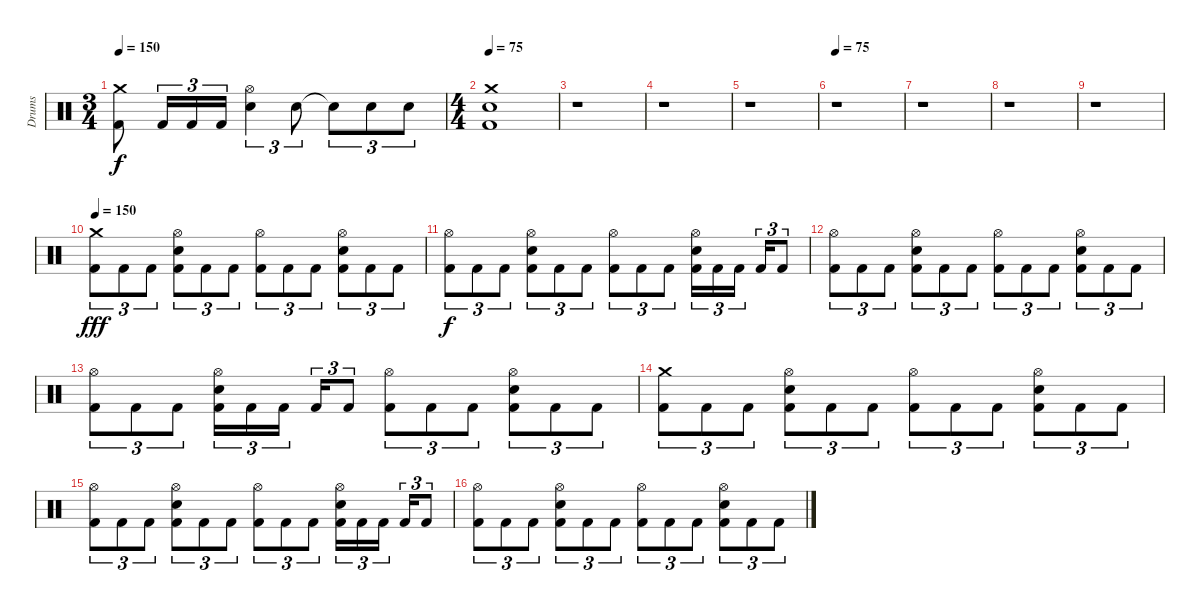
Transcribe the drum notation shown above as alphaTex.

\track ("Drums" "Drums") {instrument percussion}
\staff {score}
\articulation defaults
\ts (3 4)
\tempo 150
\clef neutral
\ks c
("Kick (hit) 2" "Crash medium (hit)").8{dy f} "Kick (hit) 2".16{tu (3 2)} "Kick (hit) 2".16{tu (3 2)} "Kick (hit) 2".16{tu (3 2)} ("Electric Snare (hit)" "Hi-Hat (open)").4{tu (3 2)} "Electric Snare (hit)".8{tu (3 2)} "Electric Snare (hit)"{t}.8{tu (3 2)} "Electric Snare (hit)".8{tu (3 2)} "Electric Snare (hit)".8{tu (3 2)} |
\ts (4 4)
\tempo 75
("Kick (hit) 2" "Electric Snare (hit)" "Crash medium (hit)").1 |
r.1 |
r.1 |
r.1 |
\tempo 75
r.1 |
r.1 |
r.1 |
r.1 |
\tempo 150
("Kick (hit) 2" "Crash medium (hit)").8{tu (3 2) dy fff} "Kick (hit) 2".8{tu (3 2)} "Kick (hit) 2".8{tu (3 2)} ("Kick (hit) 2" "Electric Snare (hit)" "Hi-Hat (open)").8{tu (3 2)} "Kick (hit) 2".8{tu (3 2)} "Kick (hit) 2".8{tu (3 2)} ("Kick (hit) 2" "Hi-Hat (open)").8{tu (3 2)} "Kick (hit) 2".8{tu (3 2)} "Kick (hit) 2".8{tu (3 2)} ("Kick (hit) 2" "Electric Snare (hit)" "Hi-Hat (open)").8{tu (3 2)} "Kick (hit) 2".8{tu (3 2)} "Kick (hit) 2".8{tu (3 2)} |
("Kick (hit) 2" "Hi-Hat (open)").8{tu (3 2) dy f} "Kick (hit) 2".8{tu (3 2)} "Kick (hit) 2".8{tu (3 2)} ("Kick (hit) 2" "Electric Snare (hit)" "Hi-Hat (open)").8{tu (3 2)} "Kick (hit) 2".8{tu (3 2)} "Kick (hit) 2".8{tu (3 2)} ("Kick (hit) 2" "Hi-Hat (open)").8{tu (3 2)} "Kick (hit) 2".8{tu (3 2)} "Kick (hit) 2".8{tu (3 2)} ("Kick (hit) 2" "Electric Snare (hit)" "Hi-Hat (open)").16{tu (3 2)} "Kick (hit) 2".16{tu (3 2)} "Kick (hit) 2".16{tu (3 2)} "Kick (hit) 2".16{tu (3 2)} "Kick (hit) 2".8{tu (3 2)} |
("Kick (hit) 2" "Hi-Hat (open)").8{tu (3 2)} "Kick (hit) 2".8{tu (3 2)} "Kick (hit) 2".8{tu (3 2)} ("Kick (hit) 2" "Electric Snare (hit)" "Hi-Hat (open)").8{tu (3 2)} "Kick (hit) 2".8{tu (3 2)} "Kick (hit) 2".8{tu (3 2)} ("Kick (hit) 2" "Hi-Hat (open)").8{tu (3 2)} "Kick (hit) 2".8{tu (3 2)} "Kick (hit) 2".8{tu (3 2)} ("Kick (hit) 2" "Electric Snare (hit)" "Hi-Hat (open)").8{tu (3 2)} "Kick (hit) 2".8{tu (3 2)} "Kick (hit) 2".8{tu (3 2)} |
("Kick (hit) 2" "Hi-Hat (open)").8{tu (3 2)} "Kick (hit) 2".8{tu (3 2)} "Kick (hit) 2".8{tu (3 2)} ("Kick (hit) 2" "Electric Snare (hit)" "Hi-Hat (open)").16{tu (3 2)} "Kick (hit) 2".16{tu (3 2)} "Kick (hit) 2".16{tu (3 2)} "Kick (hit) 2".16{tu (3 2)} "Kick (hit) 2".8{tu (3 2)} ("Kick (hit) 2" "Hi-Hat (open)").8{tu (3 2)} "Kick (hit) 2".8{tu (3 2)} "Kick (hit) 2".8{tu (3 2)} ("Kick (hit) 2" "Electric Snare (hit)" "Hi-Hat (open)").8{tu (3 2)} "Kick (hit) 2".8{tu (3 2)} "Kick (hit) 2".8{tu (3 2)} |
("Kick (hit) 2" "Crash medium (hit)").8{tu (3 2)} "Kick (hit) 2".8{tu (3 2)} "Kick (hit) 2".8{tu (3 2)} ("Kick (hit) 2" "Electric Snare (hit)" "Hi-Hat (open)").8{tu (3 2)} "Kick (hit) 2".8{tu (3 2)} "Kick (hit) 2".8{tu (3 2)} ("Kick (hit) 2" "Hi-Hat (open)").8{tu (3 2)} "Kick (hit) 2".8{tu (3 2)} "Kick (hit) 2".8{tu (3 2)} ("Kick (hit) 2" "Electric Snare (hit)" "Hi-Hat (open)").8{tu (3 2)} "Kick (hit) 2".8{tu (3 2)} "Kick (hit) 2".8{tu (3 2)} |
("Kick (hit) 2" "Hi-Hat (open)").8{tu (3 2)} "Kick (hit) 2".8{tu (3 2)} "Kick (hit) 2".8{tu (3 2)} ("Kick (hit) 2" "Electric Snare (hit)" "Hi-Hat (open)").8{tu (3 2)} "Kick (hit) 2".8{tu (3 2)} "Kick (hit) 2".8{tu (3 2)} ("Kick (hit) 2" "Hi-Hat (open)").8{tu (3 2)} "Kick (hit) 2".8{tu (3 2)} "Kick (hit) 2".8{tu (3 2)} ("Kick (hit) 2" "Electric Snare (hit)" "Hi-Hat (open)").16{tu (3 2)} "Kick (hit) 2".16{tu (3 2)} "Kick (hit) 2".16{tu (3 2)} "Kick (hit) 2".16{tu (3 2)} "Kick (hit) 2".8{tu (3 2)} |
("Kick (hit) 2" "Hi-Hat (open)").8{tu (3 2)} "Kick (hit) 2".8{tu (3 2)} "Kick (hit) 2".8{tu (3 2)} ("Kick (hit) 2" "Electric Snare (hit)" "Hi-Hat (open)").8{tu (3 2)} "Kick (hit) 2".8{tu (3 2)} "Kick (hit) 2".8{tu (3 2)} ("Kick (hit) 2" "Hi-Hat (open)").8{tu (3 2)} "Kick (hit) 2".8{tu (3 2)} "Kick (hit) 2".8{tu (3 2)} ("Kick (hit) 2" "Electric Snare (hit)" "Hi-Hat (open)").8{tu (3 2)} "Kick (hit) 2".8{tu (3 2)} "Kick (hit) 2".8{tu (3 2)}
